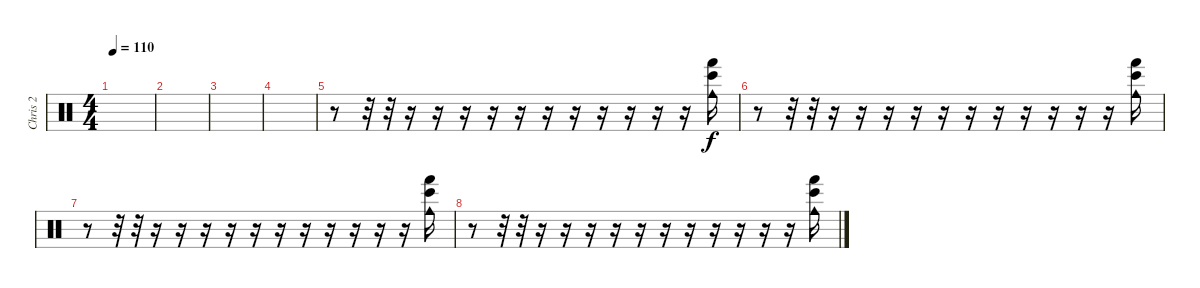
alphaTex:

\track ("Chris 2" "Chris 2") {instrument percussion}
\staff {score}
\articulation defaults
\ts (4 4)
\tempo 110
\clef neutral
\ks c
|
|
|
|
r.8 r.32 r.32 r.16 r.16 r.16 r.16 r.16 r.16 r.16 r.16 r.16 r.16 r.16 ("Hand (hit)" "Bongo High (hit)" "Cowbell medium (hit)").16 |
r.8 r.32 r.32 r.16 r.16 r.16 r.16 r.16 r.16 r.16 r.16 r.16 r.16 r.16 ("Hand (hit)" "Bongo High (hit)" "Cowbell medium (hit)").16 |
r.8 r.32 r.32 r.16 r.16 r.16 r.16 r.16 r.16 r.16 r.16 r.16 r.16 r.16 ("Hand (hit)" "Bongo High (hit)" "Cowbell medium (hit)").16 |
r.8 r.32 r.32 r.16 r.16 r.16 r.16 r.16 r.16 r.16 r.16 r.16 r.16 r.16 ("Hand (hit)" "Bongo High (hit)" "Cowbell medium (hit)").16
